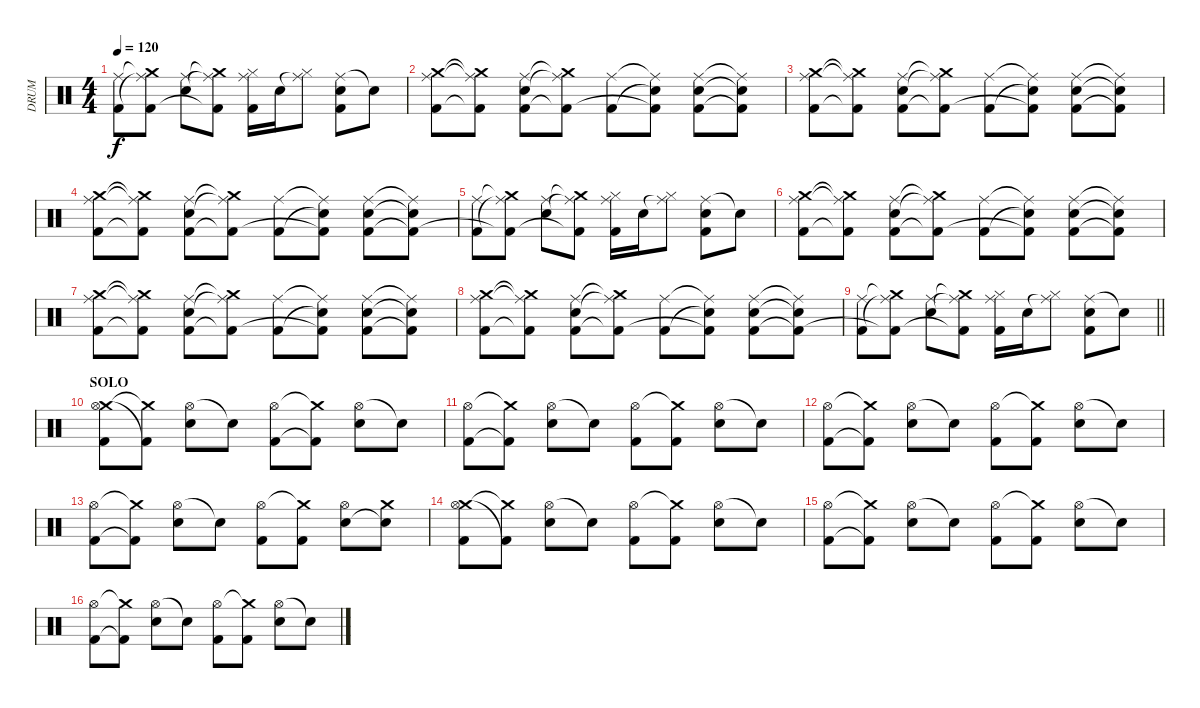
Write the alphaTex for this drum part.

\track ("DRUM" "DRUM") {instrument percussion}
\staff {score}
\articulation defaults
\ts (4 4)
\tempo 120
\clef neutral
\ks c
("Ride (middle)" "Kick (hit) 2").8{dy f} ("Crash medium (hit)"{t} "Ride (middle)"{t} "Kick (hit) 2"{t}).8 ("Ride (middle)" "Electric Snare (hit)").8 ("Crash medium (hit)"{t} "Ride (middle)"{t} "Kick (hit) 2"{t}).8 ("Ride (middle)" "Hi-Hat (closed)" "Kick (hit) 2").16 "Electric Snare (hit)".16 ("Ride (middle)"{t} "Hi-Hat (closed)").8 ("Ride (middle)" "Electric Snare (hit)" "Kick (hit) 2").8 "Electric Snare (hit)"{t}.8 |
("Crash medium (hit)" "Ride (middle)" "Kick (hit) 2").8 ("Crash medium (hit)"{t} "Ride (middle)"{t} "Kick (hit) 2"{t}).8 ("Ride (middle)" "Electric Snare (hit)" "Kick (hit) 2").8 ("Crash medium (hit)"{t} "Ride (middle)"{t} "Kick (hit) 2"{t}).8 ("Ride (middle)" "Kick (hit) 2").8 ("Ride (middle)"{t} "Electric Snare (hit)"{t} "Kick (hit) 2"{t}).8 ("Ride (middle)" "Electric Snare (hit)" "Kick (hit) 2").8 ("Ride (middle)"{t} "Electric Snare (hit)"{t} "Kick (hit) 2"{t}).8 |
("Crash medium (hit)" "Ride (middle)" "Kick (hit) 2").8 ("Crash medium (hit)"{t} "Ride (middle)"{t} "Kick (hit) 2"{t}).8 ("Ride (middle)" "Electric Snare (hit)" "Kick (hit) 2").8 ("Crash medium (hit)"{t} "Ride (middle)"{t} "Kick (hit) 2"{t}).8 ("Ride (middle)" "Kick (hit) 2").8 ("Ride (middle)"{t} "Electric Snare (hit)"{t} "Kick (hit) 2"{t}).8 ("Ride (middle)" "Electric Snare (hit)" "Kick (hit) 2").8 ("Ride (middle)"{t} "Electric Snare (hit)"{t} "Kick (hit) 2"{t}).8 |
("Crash medium (hit)" "Ride (middle)" "Kick (hit) 2").8 ("Crash medium (hit)"{t} "Ride (middle)"{t} "Kick (hit) 2"{t}).8 ("Ride (middle)" "Electric Snare (hit)" "Kick (hit) 2").8 ("Crash medium (hit)"{t} "Ride (middle)"{t} "Kick (hit) 2"{t}).8 ("Ride (middle)" "Kick (hit) 2").8 ("Ride (middle)"{t} "Electric Snare (hit)"{t} "Kick (hit) 2"{t}).8 ("Ride (middle)" "Electric Snare (hit)" "Kick (hit) 2").8 ("Ride (middle)"{t} "Electric Snare (hit)"{t} "Kick (hit) 2"{t}).8 |
("Ride (middle)" "Kick (hit) 2").8 ("Crash medium (hit)"{t} "Ride (middle)"{t} "Kick (hit) 2"{t}).8 ("Ride (middle)" "Electric Snare (hit)").8 ("Crash medium (hit)"{t} "Ride (middle)"{t} "Kick (hit) 2"{t}).8 ("Ride (middle)" "Hi-Hat (closed)" "Kick (hit) 2").16 "Electric Snare (hit)".16 ("Ride (middle)"{t} "Hi-Hat (closed)").8 ("Ride (middle)" "Electric Snare (hit)" "Kick (hit) 2").8 "Electric Snare (hit)"{t}.8 |
("Crash medium (hit)" "Ride (middle)" "Kick (hit) 2").8 ("Crash medium (hit)"{t} "Ride (middle)"{t} "Kick (hit) 2"{t}).8 ("Ride (middle)" "Electric Snare (hit)" "Kick (hit) 2").8 ("Crash medium (hit)"{t} "Ride (middle)"{t} "Kick (hit) 2"{t}).8 ("Ride (middle)" "Kick (hit) 2").8 ("Ride (middle)"{t} "Electric Snare (hit)"{t} "Kick (hit) 2"{t}).8 ("Ride (middle)" "Electric Snare (hit)" "Kick (hit) 2").8 ("Ride (middle)"{t} "Electric Snare (hit)"{t} "Kick (hit) 2"{t}).8 |
("Crash medium (hit)" "Ride (middle)" "Kick (hit) 2").8 ("Crash medium (hit)"{t} "Ride (middle)"{t} "Kick (hit) 2"{t}).8 ("Ride (middle)" "Electric Snare (hit)" "Kick (hit) 2").8 ("Crash medium (hit)"{t} "Ride (middle)"{t} "Kick (hit) 2"{t}).8 ("Ride (middle)" "Kick (hit) 2").8 ("Ride (middle)"{t} "Electric Snare (hit)"{t} "Kick (hit) 2"{t}).8 ("Ride (middle)" "Electric Snare (hit)" "Kick (hit) 2").8 ("Ride (middle)"{t} "Electric Snare (hit)"{t} "Kick (hit) 2"{t}).8 |
("Crash medium (hit)" "Ride (middle)" "Kick (hit) 2").8 ("Crash medium (hit)"{t} "Ride (middle)"{t} "Kick (hit) 2"{t}).8 ("Ride (middle)" "Electric Snare (hit)" "Kick (hit) 2").8 ("Crash medium (hit)"{t} "Ride (middle)"{t} "Kick (hit) 2"{t}).8 ("Ride (middle)" "Kick (hit) 2").8 ("Ride (middle)"{t} "Electric Snare (hit)"{t} "Kick (hit) 2"{t}).8 ("Ride (middle)" "Electric Snare (hit)" "Kick (hit) 2").8 ("Ride (middle)"{t} "Electric Snare (hit)"{t} "Kick (hit) 2"{t}).8 |
\barLineRight lightlight
("Ride (middle)" "Kick (hit) 2").8 ("Crash medium (hit)"{t} "Ride (middle)"{t} "Kick (hit) 2"{t}).8 ("Ride (middle)" "Electric Snare (hit)").8 ("Crash medium (hit)"{t} "Ride (middle)"{t} "Kick (hit) 2"{t}).8 ("Ride (middle)" "Hi-Hat (closed)" "Kick (hit) 2").16 "Electric Snare (hit)".16 ("Ride (middle)"{t} "Hi-Hat (closed)").8 ("Ride (middle)" "Electric Snare (hit)" "Kick (hit) 2").8 "Electric Snare (hit)"{t}.8 |
\section ("" "SOLO")
("Crash medium (hit)" "Hi-Hat (open)" "Kick (hit) 2").8 ("Crash medium (hit)"{t} "Kick (hit) 2"{t}).8 ("Hi-Hat (open)" "Electric Snare (hit)").8 "Electric Snare (hit)"{t}.8 ("Hi-Hat (open)" "Kick (hit) 2").8 ("Crash medium (hit)"{t} "Kick (hit) 2"{t}).8 ("Hi-Hat (open)" "Electric Snare (hit)").8 "Electric Snare (hit)"{t}.8 |
("Hi-Hat (open)" "Kick (hit) 2").8 ("Crash medium (hit)"{t} "Kick (hit) 2"{t}).8 ("Hi-Hat (open)" "Electric Snare (hit)").8 "Electric Snare (hit)"{t}.8 ("Hi-Hat (open)" "Kick (hit) 2").8 ("Crash medium (hit)"{t} "Kick (hit) 2").8 ("Hi-Hat (open)" "Electric Snare (hit)").8 "Electric Snare (hit)"{t}.8 |
("Hi-Hat (open)" "Kick (hit) 2").8 ("Crash medium (hit)"{t} "Kick (hit) 2"{t}).8 ("Hi-Hat (open)" "Electric Snare (hit)").8 "Electric Snare (hit)"{t}.8 ("Hi-Hat (open)" "Kick (hit) 2").8 ("Crash medium (hit)"{t} "Kick (hit) 2").8 ("Hi-Hat (open)" "Electric Snare (hit)").8 "Electric Snare (hit)"{t}.8 |
("Hi-Hat (open)" "Kick (hit) 2").8 ("Crash medium (hit)"{t} "Kick (hit) 2"{t}).8 ("Hi-Hat (open)" "Electric Snare (hit)").8 "Electric Snare (hit)"{t}.8 ("Hi-Hat (open)" "Kick (hit) 2").8 ("Crash medium (hit)"{t} "Kick (hit) 2").8 ("Hi-Hat (open)" "Electric Snare (hit)").8 ("Crash medium (hit)" "Electric Snare (hit)"{t}).8 |
("Crash medium (hit)" "Hi-Hat (open)" "Kick (hit) 2").8 ("Crash medium (hit)"{t} "Kick (hit) 2"{t}).8 ("Hi-Hat (open)" "Electric Snare (hit)").8 "Electric Snare (hit)"{t}.8 ("Hi-Hat (open)" "Kick (hit) 2").8 ("Crash medium (hit)"{t} "Kick (hit) 2").8 ("Hi-Hat (open)" "Electric Snare (hit)").8 "Electric Snare (hit)"{t}.8 |
("Hi-Hat (open)" "Kick (hit) 2").8 ("Crash medium (hit)"{t} "Kick (hit) 2"{t}).8 ("Hi-Hat (open)" "Electric Snare (hit)").8 "Electric Snare (hit)"{t}.8 ("Hi-Hat (open)" "Kick (hit) 2").8 ("Crash medium (hit)"{t} "Kick (hit) 2").8 ("Hi-Hat (open)" "Electric Snare (hit)").8 "Electric Snare (hit)"{t}.8 |
("Hi-Hat (open)" "Kick (hit) 2").8 ("Crash medium (hit)"{t} "Kick (hit) 2"{t}).8 ("Hi-Hat (open)" "Electric Snare (hit)").8 "Electric Snare (hit)"{t}.8 ("Hi-Hat (open)" "Kick (hit) 2").8 ("Crash medium (hit)"{t} "Kick (hit) 2").8 ("Hi-Hat (open)" "Electric Snare (hit)").8 "Electric Snare (hit)"{t}.8
